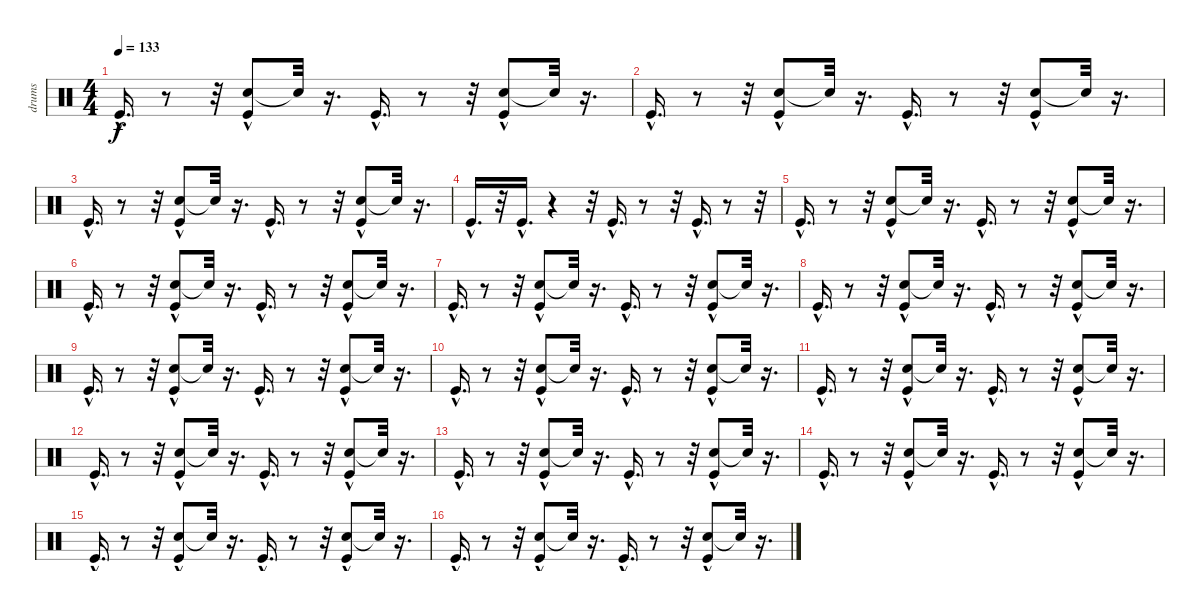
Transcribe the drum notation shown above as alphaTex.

\track ("drums" "drums") {instrument percussion}
\staff {score}
\articulation defaults
\ts (4 4)
\tempo 133
\clef neutral
\ks c "Kick (hit)"{hac}.16{d dy f}
r.8 r.32 ("Hand Clap (hit)" "Kick (hit)"{hac}).8 "Snare (hit)"{t}.32 r.16{d} "Kick (hit)"{hac}.16{d} r.8 r.32 ("Hand Clap (hit)" "Kick (hit)"{hac}).8 "Snare (hit)"{t}.32 r.16{d} |
"Kick (hit)"{hac}.16{d} r.8 r.32 ("Hand Clap (hit)" "Kick (hit)"{hac}).8 "Snare (hit)"{t}.32 r.16{d} "Kick (hit)"{hac}.16{d} r.8 r.32 ("Hand Clap (hit)" "Kick (hit)"{hac}).8 "Snare (hit)"{t}.32 r.16{d} |
"Kick (hit)"{hac}.16{d} r.8 r.32 ("Hand Clap (hit)" "Kick (hit)"{hac}).8 "Snare (hit)"{t}.32 r.16{d} "Kick (hit)"{hac}.16{d} r.8 r.32 ("Hand Clap (hit)" "Kick (hit)"{hac}).8 "Snare (hit)"{t}.32 r.16{d} |
"Kick (hit)"{hac}.16{d} r.32 "Kick (hit)"{hac}.16{d} r.4 r.32 "Kick (hit)"{hac}.16{d} r.8 r.32 "Kick (hit)"{hac}.16{d} r.8 r.32 |
"Kick (hit)"{hac}.16{d} r.8 r.32 ("Hand Clap (hit)" "Kick (hit)"{hac}).8 "Snare (hit)"{t}.32 r.16{d} "Kick (hit)"{hac}.16{d} r.8 r.32 ("Hand Clap (hit)" "Kick (hit)"{hac}).8 "Snare (hit)"{t}.32 r.16{d} |
"Kick (hit)"{hac}.16{d} r.8 r.32 ("Hand Clap (hit)" "Kick (hit)"{hac}).8 "Snare (hit)"{t}.32 r.16{d} "Kick (hit)"{hac}.16{d} r.8 r.32 ("Hand Clap (hit)" "Kick (hit)"{hac}).8 "Snare (hit)"{t}.32 r.16{d} |
"Kick (hit)"{hac}.16{d} r.8 r.32 ("Hand Clap (hit)" "Kick (hit)"{hac}).8 "Snare (hit)"{t}.32 r.16{d} "Kick (hit)"{hac}.16{d} r.8 r.32 ("Hand Clap (hit)" "Kick (hit)"{hac}).8 "Snare (hit)"{t}.32 r.16{d} |
"Kick (hit)"{hac}.16{d} r.8 r.32 ("Hand Clap (hit)" "Kick (hit)"{hac}).8 "Snare (hit)"{t}.32 r.16{d} "Kick (hit)"{hac}.16{d} r.8 r.32 ("Hand Clap (hit)" "Kick (hit)"{hac}).8 "Snare (hit)"{t}.32 r.16{d} |
"Kick (hit)"{hac}.16{d} r.8 r.32 ("Hand Clap (hit)" "Kick (hit)"{hac}).8 "Snare (hit)"{t}.32 r.16{d} "Kick (hit)"{hac}.16{d} r.8 r.32 ("Hand Clap (hit)" "Kick (hit)"{hac}).8 "Snare (hit)"{t}.32 r.16{d} |
"Kick (hit)"{hac}.16{d} r.8 r.32 ("Hand Clap (hit)" "Kick (hit)"{hac}).8 "Snare (hit)"{t}.32 r.16{d} "Kick (hit)"{hac}.16{d} r.8 r.32 ("Hand Clap (hit)" "Kick (hit)"{hac}).8 "Snare (hit)"{t}.32 r.16{d} |
"Kick (hit)"{hac}.16{d} r.8 r.32 ("Hand Clap (hit)" "Kick (hit)"{hac}).8 "Snare (hit)"{t}.32 r.16{d} "Kick (hit)"{hac}.16{d} r.8 r.32 ("Hand Clap (hit)" "Kick (hit)"{hac}).8 "Snare (hit)"{t}.32 r.16{d} |
"Kick (hit)"{hac}.16{d} r.8 r.32 ("Hand Clap (hit)" "Kick (hit)"{hac}).8 "Snare (hit)"{t}.32 r.16{d} "Kick (hit)"{hac}.16{d} r.8 r.32 ("Hand Clap (hit)" "Kick (hit)"{hac}).8 "Snare (hit)"{t}.32 r.16{d} |
"Kick (hit)"{hac}.16{d} r.8 r.32 ("Hand Clap (hit)" "Kick (hit)"{hac}).8 "Snare (hit)"{t}.32 r.16{d} "Kick (hit)"{hac}.16{d} r.8 r.32 ("Hand Clap (hit)" "Kick (hit)"{hac}).8 "Snare (hit)"{t}.32 r.16{d} |
"Kick (hit)"{hac}.16{d} r.8 r.32 ("Hand Clap (hit)" "Kick (hit)"{hac}).8 "Snare (hit)"{t}.32 r.16{d} "Kick (hit)"{hac}.16{d} r.8 r.32 ("Hand Clap (hit)" "Kick (hit)"{hac}).8 "Snare (hit)"{t}.32 r.16{d} |
"Kick (hit)"{hac}.16{d} r.8 r.32 ("Hand Clap (hit)" "Kick (hit)"{hac}).8 "Snare (hit)"{t}.32 r.16{d} "Kick (hit)"{hac}.16{d} r.8 r.32 ("Hand Clap (hit)" "Kick (hit)"{hac}).8 "Snare (hit)"{t}.32 r.16{d} |
"Kick (hit)"{hac}.16{d} r.8 r.32 ("Hand Clap (hit)" "Kick (hit)"{hac}).8 "Snare (hit)"{t}.32 r.16{d} "Kick (hit)"{hac}.16{d} r.8 r.32 ("Hand Clap (hit)" "Kick (hit)"{hac}).8 "Snare (hit)"{t}.32 r.16{d}
